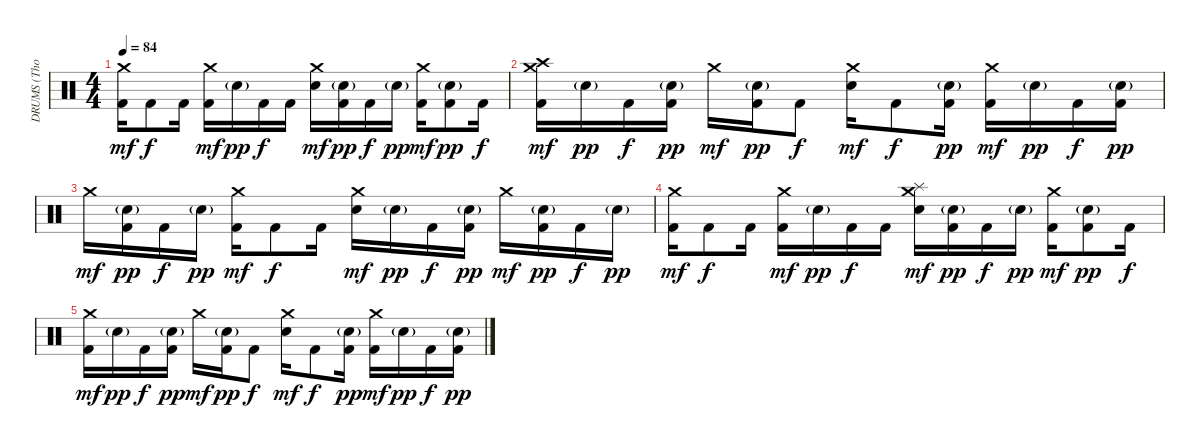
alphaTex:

\track ("DRUMS (Thomas Haake)" "DRUMS (Tho") {instrument percussion}
\staff {score}
\articulation defaults
\ts (4 4)
\tempo 84
\clef neutral
\ks c
("Crash medium (hit)" "Kick (hit) 2").16{dy mf} "Kick (hit) 2".8{dy f} "Kick (hit) 2".16 ("Crash medium (hit)" "Kick (hit) 2").16{dy mf} "Electric Snare (hit)"{g}.16{dy pp} "Kick (hit) 2".16{dy f} "Kick (hit) 2".16 ("Crash medium (hit)" "Electric Snare (hit)").16{dy mf} ("Electric Snare (hit)"{g} "Kick (hit) 2").16{dy pp} "Kick (hit) 2".16{dy f} "Electric Snare (hit)"{g}.16{dy pp} ("Crash medium (hit)" "Kick (hit) 2").16{dy mf} ("Electric Snare (hit)"{g} "Kick (hit) 2").8{dy pp} "Kick (hit) 2".16{dy f} |
("Crash medium (hit)" "Crash high (hit)" "Kick (hit) 2").16{dy mf volume 0} "Electric Snare (hit)"{g}.16{dy pp} "Kick (hit) 2".16{dy f} ("Electric Snare (hit)"{g} "Kick (hit) 2").16{dy pp} "Crash medium (hit)".16{dy mf} ("Electric Snare (hit)"{g} "Kick (hit) 2").16{dy pp} "Kick (hit) 2".8{dy f} ("Crash medium (hit)" "Electric Snare (hit)").16{dy mf} "Kick (hit) 2".8{dy f} ("Electric Snare (hit)"{g} "Kick (hit) 2").16{dy pp} ("Crash medium (hit)" "Kick (hit) 2").16{dy mf} "Electric Snare (hit)"{g}.16{dy pp} "Kick (hit) 2".16{dy f} ("Electric Snare (hit)"{g} "Kick (hit) 2").16{dy pp} |
"Crash medium (hit)".16{dy mf} ("Electric Snare (hit)"{g} "Kick (hit) 2").16{dy pp} "Kick (hit) 2".16{dy f} "Electric Snare (hit)"{g}.16{dy pp} ("Crash medium (hit)" "Kick (hit) 2").16{dy mf} "Kick (hit) 2".8{dy f} "Kick (hit) 2".16 ("Crash medium (hit)" "Electric Snare (hit)").16{dy mf} "Electric Snare (hit)"{g}.16{dy pp} "Kick (hit) 2".16{dy f} ("Electric Snare (hit)"{g} "Kick (hit) 2").16{dy pp} "Crash medium (hit)".16{dy mf} ("Electric Snare (hit)"{g} "Kick (hit) 2").16{dy pp} "Kick (hit) 2".16{dy f} "Electric Snare (hit)"{g}.16{dy pp} |
("Crash medium (hit)" "Kick (hit) 2").16{dy mf} "Kick (hit) 2".8{dy f} "Kick (hit) 2".16 ("Crash medium (hit)" "Kick (hit) 2").16{dy mf} "Electric Snare (hit)"{g}.16{dy pp} "Kick (hit) 2".16{dy f} "Kick (hit) 2".16 ("Crash medium (hit)" "Splash (hit)" "Electric Snare (hit)").16{dy mf} ("Electric Snare (hit)"{g} "Kick (hit) 2").16{dy pp} "Kick (hit) 2".16{dy f} "Electric Snare (hit)"{g}.16{dy pp} ("Crash medium (hit)" "Kick (hit) 2").16{dy mf} ("Electric Snare (hit)"{g} "Kick (hit) 2").8{dy pp} "Kick (hit) 2".16{dy f} |
("Crash medium (hit)" "Kick (hit) 2").16{dy mf} "Electric Snare (hit)"{g}.16{dy pp} "Kick (hit) 2".16{dy f} ("Electric Snare (hit)"{g} "Kick (hit) 2").16{dy pp} "Crash medium (hit)".16{dy mf} ("Electric Snare (hit)"{g} "Kick (hit) 2").16{dy pp} "Kick (hit) 2".8{dy f} ("Crash medium (hit)" "Electric Snare (hit)").16{dy mf} "Kick (hit) 2".8{dy f} ("Electric Snare (hit)"{g} "Kick (hit) 2").16{dy pp} ("Crash medium (hit)" "Kick (hit) 2").16{dy mf} "Electric Snare (hit)"{g}.16{dy pp} "Kick (hit) 2".16{dy f} ("Electric Snare (hit)"{g} "Kick (hit) 2").16{dy pp}
